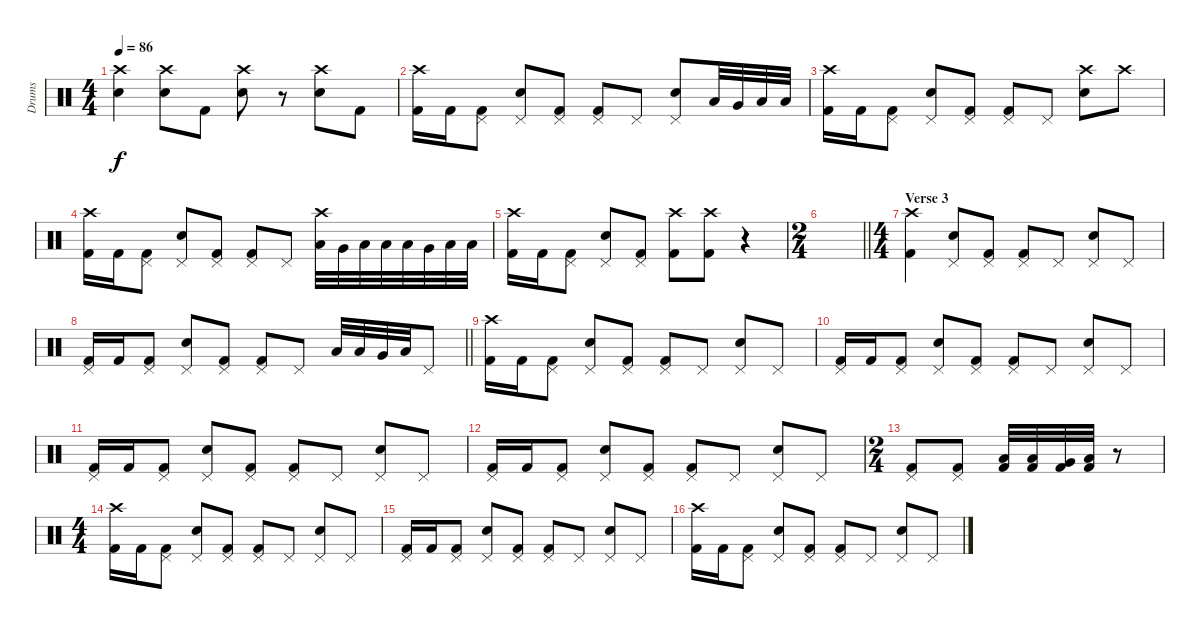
\track ("Drums" "Drums") {instrument percussion}
\staff {score}
\articulation defaults
\ts (4 4)
\tempo 86
\clef neutral
\ks c
("Crash high (hit)" "Snare (hit) 2").4{dy f} ("Crash high (hit)" "Snare (hit) 2").8 "Kick (hit) 2".8 ("Crash high (hit)" "Snare (hit) 2").8 r.8 ("Crash high (hit)" "Snare (hit) 2").8 "Kick (hit) 2".8 |
("Crash high (hit)" "Kick (hit) 2").16 "Kick (hit) 2".16 ("Pedal Hi-Hat (hit)" "Kick (hit) 2").8 ("Pedal Hi-Hat (hit)" "Snare (hit) 2").8 ("Pedal Hi-Hat (hit)" "Kick (hit) 2").8 ("Pedal Hi-Hat (hit)" "Kick (hit) 2").8 "Pedal Hi-Hat (hit)".8 ("Pedal Hi-Hat (hit)" "Snare (hit) 2").8 "Low Tom (hit)".32 "Very Low Tom (hit)".32 "Low Floor Tom (hit)".32 "Low Floor Tom (hit)".32 |
("Crash high (hit)" "Kick (hit) 2").16 "Kick (hit) 2".16 ("Pedal Hi-Hat (hit)" "Kick (hit) 2").8 ("Pedal Hi-Hat (hit)" "Snare (hit) 2").8 ("Pedal Hi-Hat (hit)" "Kick (hit) 2").8 ("Pedal Hi-Hat (hit)" "Kick (hit) 2").8 "Pedal Hi-Hat (hit)".8 ("Crash high (hit)" "Snare (hit) 2").8 "Crash high (hit)".8 |
("Crash high (hit)" "Kick (hit) 2").16 "Kick (hit) 2".16 ("Pedal Hi-Hat (hit)" "Kick (hit) 2").8 ("Pedal Hi-Hat (hit)" "Snare (hit) 2").8 ("Pedal Hi-Hat (hit)" "Kick (hit) 2").8 ("Pedal Hi-Hat (hit)" "Kick (hit) 2").8 "Pedal Hi-Hat (hit)".8 ("Crash high (hit)" "Low Tom (hit)").32 "Very Low Tom (hit)".32 "Low Floor Tom (hit)".32 "Low Floor Tom (hit)".32 "Low Tom (hit)".32 "Very Low Tom (hit)".32 "Low Floor Tom (hit)".32 "Low Floor Tom (hit)".32 |
("Crash high (hit)" "Kick (hit) 2").16 "Kick (hit) 2".16 ("Pedal Hi-Hat (hit)" "Kick (hit) 2").8 ("Pedal Hi-Hat (hit)" "Snare (hit) 2").8 ("Pedal Hi-Hat (hit)" "Kick (hit) 2").8 ("Crash high (hit)" "Kick (hit) 2").8 ("Crash high (hit)" "Kick (hit) 2").8 r.4 |
\ts (2 4)
\barLineRight lightlight
|
\ts (4 4)
\section ("" "Verse 3")
("Crash high (hit)" "Kick (hit) 2").4 ("Pedal Hi-Hat (hit)" "Snare (hit) 2").8 ("Pedal Hi-Hat (hit)" "Kick (hit) 2").8 ("Pedal Hi-Hat (hit)" "Kick (hit) 2").8 "Pedal Hi-Hat (hit)".8 ("Pedal Hi-Hat (hit)" "Snare (hit) 2").8 "Pedal Hi-Hat (hit)".8 |
\barLineRight lightlight
("Pedal Hi-Hat (hit)" "Kick (hit) 2").16 "Kick (hit) 2".16 ("Pedal Hi-Hat (hit)" "Kick (hit) 2").8 ("Pedal Hi-Hat (hit)" "Snare (hit) 2").8 ("Pedal Hi-Hat (hit)" "Kick (hit) 2").8 ("Pedal Hi-Hat (hit)" "Kick (hit) 2").8 "Pedal Hi-Hat (hit)".8 "Low Tom (hit)".32 "Low Tom (hit)".32 "Very Low Tom (hit)".32 "Low Floor Tom (hit)".32 "Pedal Hi-Hat (hit)".8 |
("Crash high (hit)" "Kick (hit) 2").16 "Kick (hit) 2".16 ("Pedal Hi-Hat (hit)" "Kick (hit) 2").8 ("Pedal Hi-Hat (hit)" "Snare (hit) 2").8 ("Pedal Hi-Hat (hit)" "Kick (hit) 2").8 ("Pedal Hi-Hat (hit)" "Kick (hit) 2").8 "Pedal Hi-Hat (hit)".8 ("Pedal Hi-Hat (hit)" "Snare (hit) 2").8 "Pedal Hi-Hat (hit)".8 |
("Pedal Hi-Hat (hit)" "Kick (hit) 2").16 "Kick (hit) 2".16 ("Pedal Hi-Hat (hit)" "Kick (hit) 2").8 ("Pedal Hi-Hat (hit)" "Snare (hit) 2").8 ("Pedal Hi-Hat (hit)" "Kick (hit) 2").8 ("Pedal Hi-Hat (hit)" "Kick (hit) 2").8 "Pedal Hi-Hat (hit)".8 ("Pedal Hi-Hat (hit)" "Snare (hit) 2").8 "Pedal Hi-Hat (hit)".8 |
("Pedal Hi-Hat (hit)" "Kick (hit) 2").16 "Kick (hit) 2".16 ("Pedal Hi-Hat (hit)" "Kick (hit) 2").8 ("Pedal Hi-Hat (hit)" "Snare (hit) 2").8 ("Pedal Hi-Hat (hit)" "Kick (hit) 2").8 ("Pedal Hi-Hat (hit)" "Kick (hit) 2").8 "Pedal Hi-Hat (hit)".8 ("Pedal Hi-Hat (hit)" "Snare (hit) 2").8 "Pedal Hi-Hat (hit)".8 |
("Pedal Hi-Hat (hit)" "Kick (hit) 2").16 "Kick (hit) 2".16 ("Pedal Hi-Hat (hit)" "Kick (hit) 2").8 ("Pedal Hi-Hat (hit)" "Snare (hit) 2").8 ("Pedal Hi-Hat (hit)" "Kick (hit) 2").8 ("Pedal Hi-Hat (hit)" "Kick (hit) 2").8 "Pedal Hi-Hat (hit)".8 ("Pedal Hi-Hat (hit)" "Snare (hit) 2").8 "Pedal Hi-Hat (hit)".8 |
\ts (2 4)
("Pedal Hi-Hat (hit)" "Kick (hit) 2").8 ("Pedal Hi-Hat (hit)" "Kick (hit) 2").8 ("Low Tom (hit)" "Kick (hit) 2").32 ("Low Tom (hit)" "Kick (hit) 2").32 ("Very Low Tom (hit)" "Kick (hit) 2").32 ("Low Floor Tom (hit)" "Kick (hit) 2").32 r.8 |
\ts (4 4)
("Crash high (hit)" "Kick (hit) 2").16 "Kick (hit) 2".16 ("Pedal Hi-Hat (hit)" "Kick (hit) 2").8 ("Pedal Hi-Hat (hit)" "Snare (hit) 2").8 ("Pedal Hi-Hat (hit)" "Kick (hit) 2").8 ("Pedal Hi-Hat (hit)" "Kick (hit) 2").8 "Pedal Hi-Hat (hit)".8 ("Pedal Hi-Hat (hit)" "Snare (hit) 2").8 "Pedal Hi-Hat (hit)".8 |
("Pedal Hi-Hat (hit)" "Kick (hit) 2").16 "Kick (hit) 2".16 ("Pedal Hi-Hat (hit)" "Kick (hit) 2").8 ("Pedal Hi-Hat (hit)" "Snare (hit) 2").8 ("Pedal Hi-Hat (hit)" "Kick (hit) 2").8 ("Pedal Hi-Hat (hit)" "Kick (hit) 2").8 "Pedal Hi-Hat (hit)".8 ("Pedal Hi-Hat (hit)" "Snare (hit) 2").8 "Pedal Hi-Hat (hit)".8 |
("Crash high (hit)" "Kick (hit) 2").16 "Kick (hit) 2".16 ("Pedal Hi-Hat (hit)" "Kick (hit) 2").8 ("Pedal Hi-Hat (hit)" "Snare (hit) 2").8 ("Pedal Hi-Hat (hit)" "Kick (hit) 2").8 ("Pedal Hi-Hat (hit)" "Kick (hit) 2").8 "Pedal Hi-Hat (hit)".8 ("Pedal Hi-Hat (hit)" "Snare (hit) 2").8 "Pedal Hi-Hat (hit)".8
